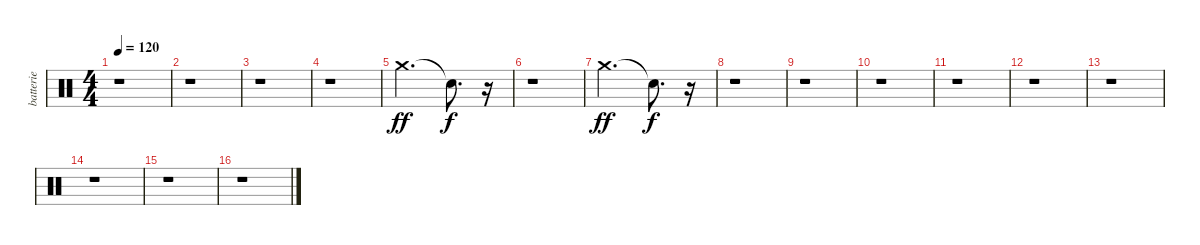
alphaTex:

\track ("batterie" "batterie") {instrument percussion}
\staff {score}
\articulation defaults
\ts (4 4)
\tempo 120
\clef neutral
\ks c
r.1{dy ff} |
r.1 |
r.1 |
r.1 |
"Crash medium (hit)".2{d} "Snare (hit)"{t}.8{d dy f} r.16 |
r.1 |
"Crash medium (hit)".2{d dy ff} "Snare (hit)"{t}.8{d dy f} r.16 |
r.1 |
r.1 |
r.1 |
r.1 |
r.1 |
r.1 |
r.1 |
r.1 |
r.1
